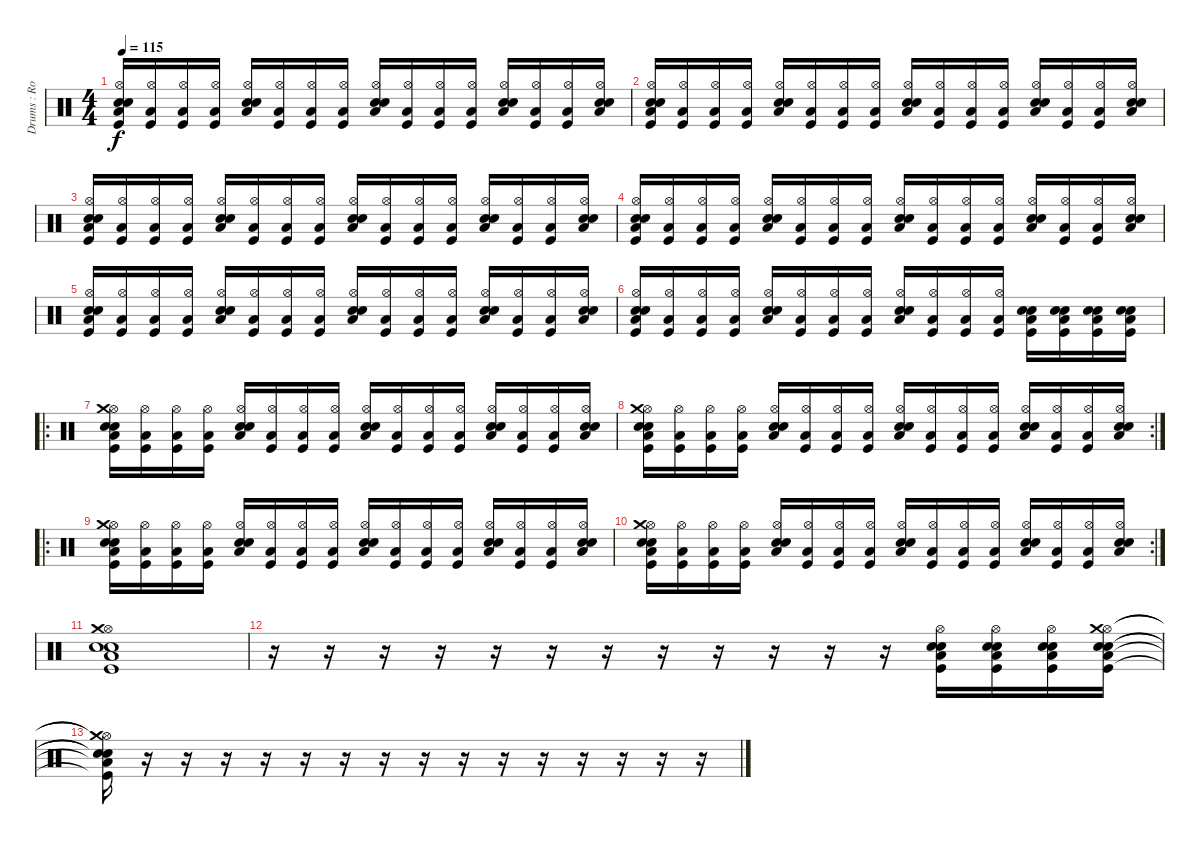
\track ("Drums : Rob Kurth" "Drums : Ro") {instrument percussion}
\staff {score}
\articulation defaults
\ts (4 4)
\tempo 115
\clef neutral
\ks c
("Low Floor Tom (hit)" "Hi-Hat (open)" "Electric Snare (hit)" "Kick (hit)" "Snare (hit) 2").16{dy f} ("Low Floor Tom (hit)" "Hi-Hat (open)" "Kick (hit)").16 ("Low Floor Tom (hit)" "Hi-Hat (open)" "Kick (hit)").16 ("Low Floor Tom (hit)" "Hi-Hat (open)" "Kick (hit)").16 ("Low Floor Tom (hit)" "Hi-Hat (open)" "Electric Snare (hit)" "Snare (hit) 2").16 ("Low Floor Tom (hit)" "Hi-Hat (open)" "Kick (hit)").16 ("Low Floor Tom (hit)" "Hi-Hat (open)" "Kick (hit)").16 ("Low Floor Tom (hit)" "Hi-Hat (open)" "Kick (hit)").16 ("Low Floor Tom (hit)" "Hi-Hat (open)" "Electric Snare (hit)" "Snare (hit) 2").16 ("Low Floor Tom (hit)" "Hi-Hat (open)" "Kick (hit)").16 ("Low Floor Tom (hit)" "Hi-Hat (open)" "Kick (hit)").16 ("Low Floor Tom (hit)" "Hi-Hat (open)" "Kick (hit)").16 ("Low Floor Tom (hit)" "Hi-Hat (open)" "Electric Snare (hit)" "Snare (hit) 2").16 ("Low Floor Tom (hit)" "Hi-Hat (open)" "Kick (hit)").16 ("Low Floor Tom (hit)" "Hi-Hat (open)" "Kick (hit)").16 ("Low Floor Tom (hit)" "Hi-Hat (open)" "Electric Snare (hit)" "Snare (hit) 2").16 |
("Low Floor Tom (hit)" "Hi-Hat (open)" "Electric Snare (hit)" "Kick (hit)" "Snare (hit) 2").16 ("Low Floor Tom (hit)" "Hi-Hat (open)" "Kick (hit)").16 ("Low Floor Tom (hit)" "Hi-Hat (open)" "Kick (hit)").16 ("Low Floor Tom (hit)" "Hi-Hat (open)" "Kick (hit)").16 ("Low Floor Tom (hit)" "Hi-Hat (open)" "Electric Snare (hit)" "Snare (hit) 2").16 ("Low Floor Tom (hit)" "Hi-Hat (open)" "Kick (hit)").16 ("Low Floor Tom (hit)" "Hi-Hat (open)" "Kick (hit)").16 ("Low Floor Tom (hit)" "Hi-Hat (open)" "Kick (hit)").16 ("Low Floor Tom (hit)" "Hi-Hat (open)" "Electric Snare (hit)" "Snare (hit) 2").16 ("Low Floor Tom (hit)" "Hi-Hat (open)" "Kick (hit)").16 ("Low Floor Tom (hit)" "Hi-Hat (open)" "Kick (hit)").16 ("Low Floor Tom (hit)" "Hi-Hat (open)" "Kick (hit)").16 ("Low Floor Tom (hit)" "Hi-Hat (open)" "Electric Snare (hit)" "Snare (hit) 2").16 ("Low Floor Tom (hit)" "Hi-Hat (open)" "Kick (hit)").16 ("Low Floor Tom (hit)" "Hi-Hat (open)" "Kick (hit)").16 ("Low Floor Tom (hit)" "Hi-Hat (open)" "Electric Snare (hit)" "Snare (hit) 2").16 |
("Low Floor Tom (hit)" "Hi-Hat (open)" "Electric Snare (hit)" "Kick (hit)" "Snare (hit) 2").16 ("Low Floor Tom (hit)" "Hi-Hat (open)" "Kick (hit)").16 ("Low Floor Tom (hit)" "Hi-Hat (open)" "Kick (hit)").16 ("Low Floor Tom (hit)" "Hi-Hat (open)" "Kick (hit)").16 ("Low Floor Tom (hit)" "Hi-Hat (open)" "Electric Snare (hit)" "Snare (hit) 2").16 ("Low Floor Tom (hit)" "Hi-Hat (open)" "Kick (hit)").16 ("Low Floor Tom (hit)" "Hi-Hat (open)" "Kick (hit)").16 ("Low Floor Tom (hit)" "Hi-Hat (open)" "Kick (hit)").16 ("Low Floor Tom (hit)" "Hi-Hat (open)" "Electric Snare (hit)" "Snare (hit) 2").16 ("Low Floor Tom (hit)" "Hi-Hat (open)" "Kick (hit)").16 ("Low Floor Tom (hit)" "Hi-Hat (open)" "Kick (hit)").16 ("Low Floor Tom (hit)" "Hi-Hat (open)" "Kick (hit)").16 ("Low Floor Tom (hit)" "Hi-Hat (open)" "Electric Snare (hit)" "Snare (hit) 2").16 ("Low Floor Tom (hit)" "Hi-Hat (open)" "Kick (hit)").16 ("Low Floor Tom (hit)" "Hi-Hat (open)" "Kick (hit)").16 ("Low Floor Tom (hit)" "Hi-Hat (open)" "Electric Snare (hit)" "Snare (hit) 2").16 |
("Low Floor Tom (hit)" "Hi-Hat (open)" "Electric Snare (hit)" "Kick (hit)" "Snare (hit) 2").16 ("Low Floor Tom (hit)" "Hi-Hat (open)" "Kick (hit)").16 ("Low Floor Tom (hit)" "Hi-Hat (open)" "Kick (hit)").16 ("Low Floor Tom (hit)" "Hi-Hat (open)" "Kick (hit)").16 ("Low Floor Tom (hit)" "Hi-Hat (open)" "Electric Snare (hit)" "Snare (hit) 2").16 ("Low Floor Tom (hit)" "Hi-Hat (open)" "Kick (hit)").16 ("Low Floor Tom (hit)" "Hi-Hat (open)" "Kick (hit)").16 ("Low Floor Tom (hit)" "Hi-Hat (open)" "Kick (hit)").16 ("Low Floor Tom (hit)" "Hi-Hat (open)" "Electric Snare (hit)" "Snare (hit) 2").16 ("Low Floor Tom (hit)" "Hi-Hat (open)" "Kick (hit)").16 ("Low Floor Tom (hit)" "Hi-Hat (open)" "Kick (hit)").16 ("Low Floor Tom (hit)" "Hi-Hat (open)" "Kick (hit)").16 ("Low Floor Tom (hit)" "Hi-Hat (open)" "Electric Snare (hit)" "Snare (hit) 2").16 ("Low Floor Tom (hit)" "Hi-Hat (open)" "Kick (hit)").16 ("Low Floor Tom (hit)" "Hi-Hat (open)" "Kick (hit)").16 ("Low Floor Tom (hit)" "Hi-Hat (open)" "Electric Snare (hit)" "Snare (hit) 2").16 |
("Low Floor Tom (hit)" "Hi-Hat (open)" "Electric Snare (hit)" "Kick (hit)" "Snare (hit) 2").16 ("Low Floor Tom (hit)" "Hi-Hat (open)" "Kick (hit)").16 ("Low Floor Tom (hit)" "Hi-Hat (open)" "Kick (hit)").16 ("Low Floor Tom (hit)" "Hi-Hat (open)" "Kick (hit)").16 ("Low Floor Tom (hit)" "Hi-Hat (open)" "Electric Snare (hit)" "Snare (hit) 2").16 ("Low Floor Tom (hit)" "Hi-Hat (open)" "Kick (hit)").16 ("Low Floor Tom (hit)" "Hi-Hat (open)" "Kick (hit)").16 ("Low Floor Tom (hit)" "Hi-Hat (open)" "Kick (hit)").16 ("Low Floor Tom (hit)" "Hi-Hat (open)" "Electric Snare (hit)" "Snare (hit) 2").16 ("Low Floor Tom (hit)" "Hi-Hat (open)" "Kick (hit)").16 ("Low Floor Tom (hit)" "Hi-Hat (open)" "Kick (hit)").16 ("Low Floor Tom (hit)" "Hi-Hat (open)" "Kick (hit)").16 ("Low Floor Tom (hit)" "Hi-Hat (open)" "Electric Snare (hit)" "Snare (hit) 2").16 ("Low Floor Tom (hit)" "Hi-Hat (open)" "Kick (hit)").16 ("Low Floor Tom (hit)" "Hi-Hat (open)" "Kick (hit)").16 ("Low Floor Tom (hit)" "Hi-Hat (open)" "Electric Snare (hit)" "Snare (hit) 2").16 |
("Low Floor Tom (hit)" "Hi-Hat (open)" "Electric Snare (hit)" "Kick (hit)" "Snare (hit) 2").16 ("Low Floor Tom (hit)" "Hi-Hat (open)" "Kick (hit)").16 ("Low Floor Tom (hit)" "Hi-Hat (open)" "Kick (hit)").16 ("Low Floor Tom (hit)" "Hi-Hat (open)" "Kick (hit)").16 ("Low Floor Tom (hit)" "Hi-Hat (open)" "Electric Snare (hit)" "Snare (hit) 2").16 ("Low Floor Tom (hit)" "Hi-Hat (open)" "Kick (hit)").16 ("Low Floor Tom (hit)" "Hi-Hat (open)" "Kick (hit)").16 ("Low Floor Tom (hit)" "Hi-Hat (open)" "Kick (hit)").16 ("Low Floor Tom (hit)" "Hi-Hat (open)" "Electric Snare (hit)" "Snare (hit) 2").16 ("Low Floor Tom (hit)" "Hi-Hat (open)" "Kick (hit)").16 ("Low Floor Tom (hit)" "Hi-Hat (open)" "Kick (hit)").16 ("Low Floor Tom (hit)" "Hi-Hat (open)" "Kick (hit)").16 ("Low Floor Tom (hit)" "Kick (hit)" "Electric Snare (hit)" "Snare (hit) 2").16 ("Low Floor Tom (hit)" "Kick (hit)" "Electric Snare (hit)" "Snare (hit) 2").16 ("Low Floor Tom (hit)" "Kick (hit)" "Electric Snare (hit)" "Snare (hit) 2").16 ("Low Floor Tom (hit)" "Kick (hit)" "Electric Snare (hit)" "Snare (hit) 2").16 |
\ro
("Low Floor Tom (hit)" "Hi-Hat (open)" "Electric Snare (hit)" "Kick (hit)" "Snare (hit) 2" "Crash medium (hit)").16 ("Low Floor Tom (hit)" "Hi-Hat (open)" "Kick (hit)").16 ("Low Floor Tom (hit)" "Hi-Hat (open)" "Kick (hit)").16 ("Low Floor Tom (hit)" "Hi-Hat (open)" "Kick (hit)").16 ("Low Floor Tom (hit)" "Hi-Hat (open)" "Electric Snare (hit)" "Snare (hit) 2").16 ("Low Floor Tom (hit)" "Hi-Hat (open)" "Kick (hit)").16 ("Low Floor Tom (hit)" "Hi-Hat (open)" "Kick (hit)").16 ("Low Floor Tom (hit)" "Hi-Hat (open)" "Kick (hit)").16 ("Low Floor Tom (hit)" "Hi-Hat (open)" "Electric Snare (hit)" "Snare (hit) 2").16 ("Low Floor Tom (hit)" "Hi-Hat (open)" "Kick (hit)").16 ("Low Floor Tom (hit)" "Hi-Hat (open)" "Kick (hit)").16 ("Low Floor Tom (hit)" "Hi-Hat (open)" "Kick (hit)").16 ("Low Floor Tom (hit)" "Hi-Hat (open)" "Electric Snare (hit)" "Snare (hit) 2").16 ("Low Floor Tom (hit)" "Hi-Hat (open)" "Kick (hit)").16 ("Low Floor Tom (hit)" "Hi-Hat (open)" "Kick (hit)").16 ("Low Floor Tom (hit)" "Hi-Hat (open)" "Electric Snare (hit)" "Snare (hit) 2").16 |
\rc 2
("Low Floor Tom (hit)" "Hi-Hat (open)" "Electric Snare (hit)" "Kick (hit)" "Snare (hit) 2" "Crash medium (hit)").16 ("Low Floor Tom (hit)" "Hi-Hat (open)" "Kick (hit)").16 ("Low Floor Tom (hit)" "Hi-Hat (open)" "Kick (hit)").16 ("Low Floor Tom (hit)" "Hi-Hat (open)" "Kick (hit)").16 ("Low Floor Tom (hit)" "Hi-Hat (open)" "Electric Snare (hit)" "Snare (hit) 2").16 ("Low Floor Tom (hit)" "Hi-Hat (open)" "Kick (hit)").16 ("Low Floor Tom (hit)" "Hi-Hat (open)" "Kick (hit)").16 ("Low Floor Tom (hit)" "Hi-Hat (open)" "Kick (hit)").16 ("Low Floor Tom (hit)" "Hi-Hat (open)" "Electric Snare (hit)" "Snare (hit) 2").16 ("Low Floor Tom (hit)" "Hi-Hat (open)" "Kick (hit)").16 ("Low Floor Tom (hit)" "Hi-Hat (open)" "Kick (hit)").16 ("Low Floor Tom (hit)" "Hi-Hat (open)" "Kick (hit)").16 ("Low Floor Tom (hit)" "Hi-Hat (open)" "Electric Snare (hit)" "Snare (hit) 2").16 ("Low Floor Tom (hit)" "Hi-Hat (open)" "Kick (hit)").16 ("Low Floor Tom (hit)" "Hi-Hat (open)" "Kick (hit)").16 ("Low Floor Tom (hit)" "Hi-Hat (open)" "Electric Snare (hit)" "Snare (hit) 2").16 |
\ro
("Low Floor Tom (hit)" "Hi-Hat (open)" "Electric Snare (hit)" "Kick (hit)" "Snare (hit) 2" "Crash medium (hit)").16 ("Low Floor Tom (hit)" "Hi-Hat (open)" "Kick (hit)").16 ("Low Floor Tom (hit)" "Hi-Hat (open)" "Kick (hit)").16 ("Low Floor Tom (hit)" "Hi-Hat (open)" "Kick (hit)").16 ("Low Floor Tom (hit)" "Hi-Hat (open)" "Electric Snare (hit)" "Snare (hit) 2").16 ("Low Floor Tom (hit)" "Hi-Hat (open)" "Kick (hit)").16 ("Low Floor Tom (hit)" "Hi-Hat (open)" "Kick (hit)").16 ("Low Floor Tom (hit)" "Hi-Hat (open)" "Kick (hit)").16 ("Low Floor Tom (hit)" "Hi-Hat (open)" "Electric Snare (hit)" "Snare (hit) 2").16 ("Low Floor Tom (hit)" "Hi-Hat (open)" "Kick (hit)").16 ("Low Floor Tom (hit)" "Hi-Hat (open)" "Kick (hit)").16 ("Low Floor Tom (hit)" "Hi-Hat (open)" "Kick (hit)").16 ("Low Floor Tom (hit)" "Hi-Hat (open)" "Electric Snare (hit)" "Snare (hit) 2").16 ("Low Floor Tom (hit)" "Hi-Hat (open)" "Kick (hit)").16 ("Low Floor Tom (hit)" "Hi-Hat (open)" "Kick (hit)").16 ("Low Floor Tom (hit)" "Hi-Hat (open)" "Electric Snare (hit)" "Snare (hit) 2").16 |
\rc 2
("Low Floor Tom (hit)" "Hi-Hat (open)" "Electric Snare (hit)" "Kick (hit)" "Snare (hit) 2" "Crash medium (hit)").16 ("Low Floor Tom (hit)" "Hi-Hat (open)" "Kick (hit)").16 ("Low Floor Tom (hit)" "Hi-Hat (open)" "Kick (hit)").16 ("Low Floor Tom (hit)" "Hi-Hat (open)" "Kick (hit)").16 ("Low Floor Tom (hit)" "Hi-Hat (open)" "Electric Snare (hit)" "Snare (hit) 2").16 ("Low Floor Tom (hit)" "Hi-Hat (open)" "Kick (hit)").16 ("Low Floor Tom (hit)" "Hi-Hat (open)" "Kick (hit)").16 ("Low Floor Tom (hit)" "Hi-Hat (open)" "Kick (hit)").16 ("Low Floor Tom (hit)" "Hi-Hat (open)" "Electric Snare (hit)" "Snare (hit) 2").16 ("Low Floor Tom (hit)" "Hi-Hat (open)" "Kick (hit)").16 ("Low Floor Tom (hit)" "Hi-Hat (open)" "Kick (hit)").16 ("Low Floor Tom (hit)" "Hi-Hat (open)" "Kick (hit)").16 ("Low Floor Tom (hit)" "Hi-Hat (open)" "Electric Snare (hit)" "Snare (hit) 2").16 ("Low Floor Tom (hit)" "Hi-Hat (open)" "Kick (hit)").16 ("Low Floor Tom (hit)" "Hi-Hat (open)" "Kick (hit)").16 ("Low Floor Tom (hit)" "Hi-Hat (open)" "Electric Snare (hit)" "Snare (hit) 2").16 |
("Low Floor Tom (hit)" "Hi-Hat (open)" "Electric Snare (hit)" "Kick (hit)" "Snare (hit) 2" "Crash medium (hit)").1 |
r.16 r.16 r.16 r.16 r.16 r.16 r.16 r.16 r.16 r.16 r.16 r.16 ("Hi-Hat (open)" "Low Floor Tom (hit)" "Kick (hit)" "Electric Snare (hit)" "Snare (hit) 2").16 ("Hi-Hat (open)" "Low Floor Tom (hit)" "Kick (hit)" "Electric Snare (hit)" "Snare (hit) 2").16 ("Hi-Hat (open)" "Low Floor Tom (hit)" "Kick (hit)" "Electric Snare (hit)" "Snare (hit) 2").16 ("Hi-Hat (open)" "Low Floor Tom (hit)" "Kick (hit)" "Electric Snare (hit)" "Snare (hit) 2" "Crash medium (hit)").16 |
("Hi-Hat (open)"{t} "Low Floor Tom (hit)"{t} "Kick (hit)"{t} "Electric Snare (hit)"{t} "Snare (hit) 2"{t} "Crash medium (hit)"{t}).16 r.16 r.16 r.16 r.16 r.16 r.16 r.16 r.16 r.16 r.16 r.16 r.16 r.16 r.16 r.16
